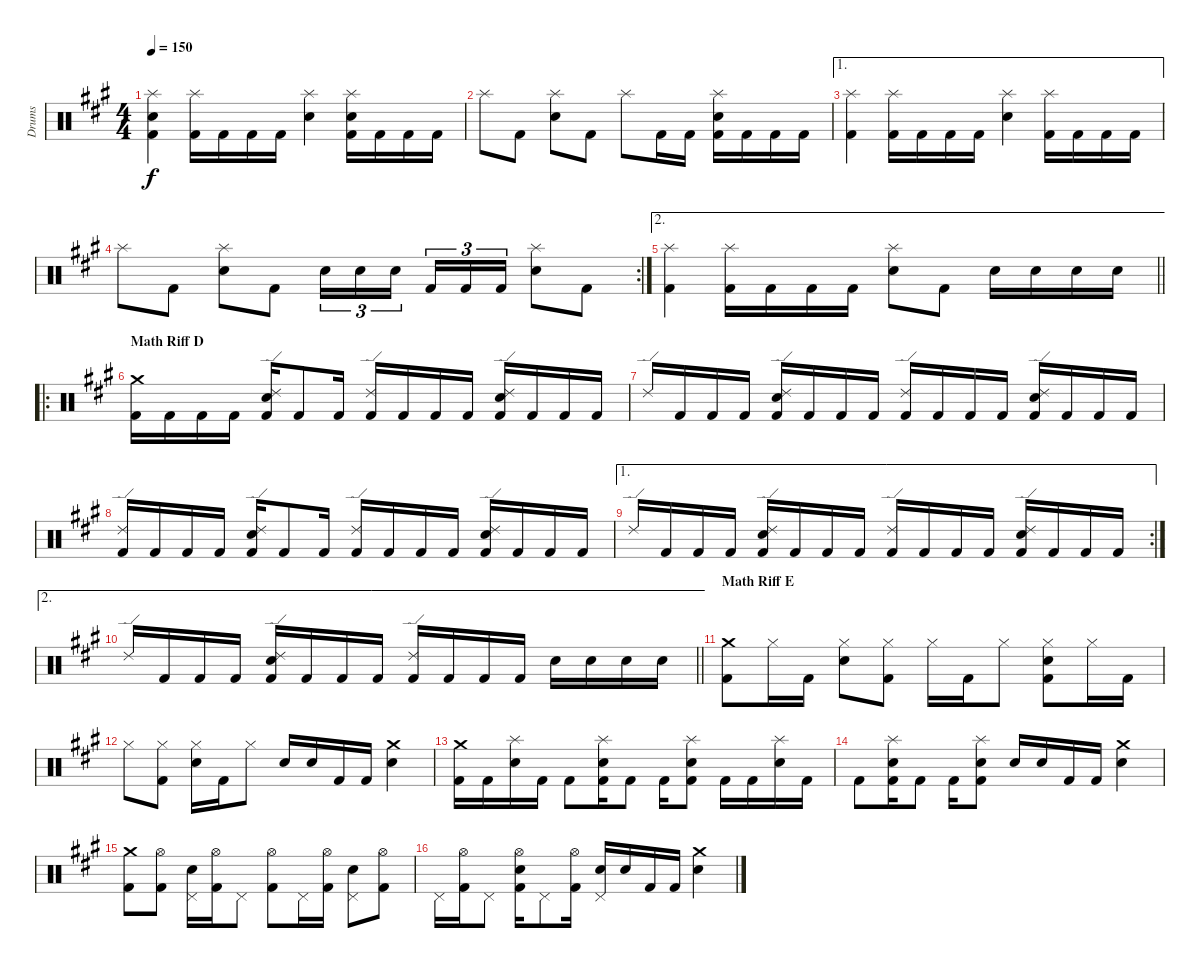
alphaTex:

\track ("Drums" "Drums") {instrument percussion}
\staff {score}
\articulation defaults
\ts (4 4)
\tempo 150
\clef neutral
\ks f#minor
("Splash (hit)" "Snare (hit) 2" "Kick (hit) 2").4{dy f} ("Splash (hit)" "Kick (hit) 2").16 "Kick (hit) 2".16 "Kick (hit) 2".16 "Kick (hit) 2".16 ("Splash (hit)" "Snare (hit) 2").4 ("Splash (hit)" "Snare (hit) 2" "Kick (hit) 2").16 "Kick (hit) 2".16 "Kick (hit) 2".16 "Kick (hit) 2".16 |
"Splash (hit)".8 "Kick (hit) 2".8 ("Splash (hit)" "Snare (hit) 2").8 "Kick (hit) 2".8 "Splash (hit)".8 "Kick (hit) 2".16 "Kick (hit) 2".16 ("Splash (hit)" "Snare (hit) 2" "Kick (hit) 2").16 "Kick (hit) 2".16 "Kick (hit) 2".16 "Kick (hit) 2".16 |
\ae 1
("Splash (hit)" "Kick (hit) 2").4 ("Splash (hit)" "Kick (hit) 2").16 "Kick (hit) 2".16 "Kick (hit) 2".16 "Kick (hit) 2".16 ("Splash (hit)" "Snare (hit) 2").4 ("Splash (hit)" "Kick (hit) 2").16 "Kick (hit) 2".16 "Kick (hit) 2".16 "Kick (hit) 2".16 |
\rc 2 "Splash (hit)".8 "Kick (hit) 2".8
("Splash (hit)" "Snare (hit) 2").8 "Kick (hit) 2".8 "Snare (hit) 2".16{tu (3 2)} "Snare (hit) 2".16{tu (3 2)} "Snare (hit) 2".16{tu (3 2) beam splitsecondary} "Kick (hit) 2".16{tu (3 2)} "Kick (hit) 2".16{tu (3 2)} "Kick (hit) 2".16{tu (3 2)} ("Splash (hit)" "Snare (hit) 2").8 "Kick (hit) 2".8 |
\ae 2
\barLineRight lightlight
("Splash (hit)" "Kick (hit) 2").4 ("Splash (hit)" "Kick (hit) 2").16 "Kick (hit) 2".16 "Kick (hit) 2".16 "Kick (hit) 2".16 ("Splash (hit)" "Snare (hit) 2").8 "Kick (hit) 2".8 "Snare (hit) 2".16 "Snare (hit) 2".16 "Snare (hit) 2".16 "Snare (hit) 2".16 |
\ro
\section ("" "Math Riff D")
("Crash medium (hit)" "Kick (hit) 2").16 "Kick (hit) 2".16 "Kick (hit) 2".16 "Kick (hit) 2".16 ("Ride (edge) 2" "Snare (hit) 2" "Kick (hit) 2").16 "Kick (hit) 2".8 "Kick (hit) 2".16 ("Ride (edge) 2" "Kick (hit) 2").16 "Kick (hit) 2".16 "Kick (hit) 2".16 "Kick (hit) 2".16 ("Ride (edge) 2" "Snare (hit) 2" "Kick (hit) 2").16 "Kick (hit) 2".16 "Kick (hit) 2".16 "Kick (hit) 2".16 |
"Ride (edge) 2".16 "Kick (hit) 2".16 "Kick (hit) 2".16 "Kick (hit) 2".16 ("Ride (edge) 2" "Snare (hit) 2" "Kick (hit) 2").16 "Kick (hit) 2".16 "Kick (hit) 2".16 "Kick (hit) 2".16 ("Ride (edge) 2" "Kick (hit) 2").16 "Kick (hit) 2".16 "Kick (hit) 2".16 "Kick (hit) 2".16 ("Ride (edge) 2" "Snare (hit) 2" "Kick (hit) 2").16 "Kick (hit) 2".16 "Kick (hit) 2".16 "Kick (hit) 2".16 |
("Ride (edge) 2" "Kick (hit) 2").16 "Kick (hit) 2".16 "Kick (hit) 2".16 "Kick (hit) 2".16 ("Ride (edge) 2" "Snare (hit) 2" "Kick (hit) 2").16 "Kick (hit) 2".8 "Kick (hit) 2".16 ("Ride (edge) 2" "Kick (hit) 2").16 "Kick (hit) 2".16 "Kick (hit) 2".16 "Kick (hit) 2".16 ("Ride (edge) 2" "Snare (hit) 2" "Kick (hit) 2").16 "Kick (hit) 2".16 "Kick (hit) 2".16 "Kick (hit) 2".16 |
\ae 1
\rc 2 "Ride (edge) 2".16 "Kick (hit) 2".16 "Kick (hit) 2".16 "Kick (hit) 2".16
("Ride (edge) 2" "Snare (hit) 2" "Kick (hit) 2").16 "Kick (hit) 2".16 "Kick (hit) 2".16 "Kick (hit) 2".16 ("Ride (edge) 2" "Kick (hit) 2").16 "Kick (hit) 2".16 "Kick (hit) 2".16 "Kick (hit) 2".16 ("Ride (edge) 2" "Snare (hit) 2" "Kick (hit) 2").16 "Kick (hit) 2".16 "Kick (hit) 2".16 "Kick (hit) 2".16 |
\ae 2
\barLineRight lightlight "Ride (edge) 2".16 "Kick (hit) 2".16 "Kick (hit) 2".16 "Kick (hit) 2".16
("Ride (edge) 2" "Snare (hit) 2" "Kick (hit) 2").16 "Kick (hit) 2".16 "Kick (hit) 2".16 "Kick (hit) 2".16 ("Ride (edge) 2" "Kick (hit) 2").16 "Kick (hit) 2".16 "Kick (hit) 2".16 "Kick (hit) 2".16 "Snare (hit) 2".16 "Snare (hit) 2".16 "Snare (hit) 2".16 "Snare (hit) 2".16 |
\section ("" "Math Riff E")
("Crash medium (hit)" "Kick (hit) 2").8 "Hi-Hat (closed)".16 "Kick (hit) 2".16 ("Hi-Hat (closed)" "Snare (hit) 2").8 ("Hi-Hat (closed)" "Kick (hit) 2").8 "Hi-Hat (closed)".16 "Kick (hit) 2".16 "Hi-Hat (closed)".8 ("Hi-Hat (closed)" "Snare (hit) 2" "Kick (hit) 2").8 "Hi-Hat (closed)".16 "Kick (hit) 2".16 |
"Hi-Hat (closed)".8 ("Hi-Hat (closed)" "Kick (hit) 2").8 ("Hi-Hat (closed)" "Snare (hit) 2").16 "Kick (hit) 2".16 "Hi-Hat (closed)".8 "Snare (hit) 2".16 "Snare (hit) 2".16 "Kick (hit) 2".16 "Kick (hit) 2".16 ("Crash medium (hit)" "Snare (hit) 2").4 |
("Crash medium (hit)" "Kick (hit) 2").16 "Kick (hit) 2".16 ("Splash (hit)" "Snare (hit) 2").16 "Kick (hit) 2".16 "Kick (hit) 2".8 ("Splash (hit)" "Snare (hit) 2" "Kick (hit) 2").16 "Kick (hit) 2".8 "Kick (hit) 2".16 ("Splash (hit)" "Snare (hit) 2" "Kick (hit) 2").8 "Kick (hit) 2".16 "Kick (hit) 2".16 ("Splash (hit)" "Snare (hit) 2").16 "Kick (hit) 2".16 |
"Kick (hit) 2".8 ("Splash (hit)" "Snare (hit) 2" "Kick (hit) 2").16 "Kick (hit) 2".8 "Kick (hit) 2".16 ("Splash (hit)" "Snare (hit) 2" "Kick (hit) 2").8 "Snare (hit) 2".16 "Snare (hit) 2".16 "Kick (hit) 2".16 "Kick (hit) 2".16 ("Crash medium (hit)" "Snare (hit) 2").4 |
("Crash medium (hit)" "Kick (hit) 2").8 ("Hi-Hat (open)" "Kick (hit) 2").8 ("Pedal Hi-Hat (hit)" "Snare (hit) 2").16 ("Hi-Hat (open)" "Kick (hit) 2").16 "Pedal Hi-Hat (hit)".8 ("Hi-Hat (open)" "Kick (hit) 2").8 "Pedal Hi-Hat (hit)".16 ("Hi-Hat (open)" "Kick (hit) 2").16 ("Pedal Hi-Hat (hit)" "Snare (hit) 2").8 ("Hi-Hat (open)" "Kick (hit) 2").8 |
"Pedal Hi-Hat (hit)".16 ("Hi-Hat (open)" "Kick (hit) 2").16 "Pedal Hi-Hat (hit)".8 ("Hi-Hat (open)" "Snare (hit) 2" "Kick (hit) 2").16 "Pedal Hi-Hat (hit)".8 ("Hi-Hat (open)" "Kick (hit) 2").16 ("Pedal Hi-Hat (hit)" "Snare (hit) 2").16 "Snare (hit) 2".16 "Kick (hit) 2".16 "Kick (hit) 2".16 ("Crash medium (hit)" "Snare (hit) 2").4
